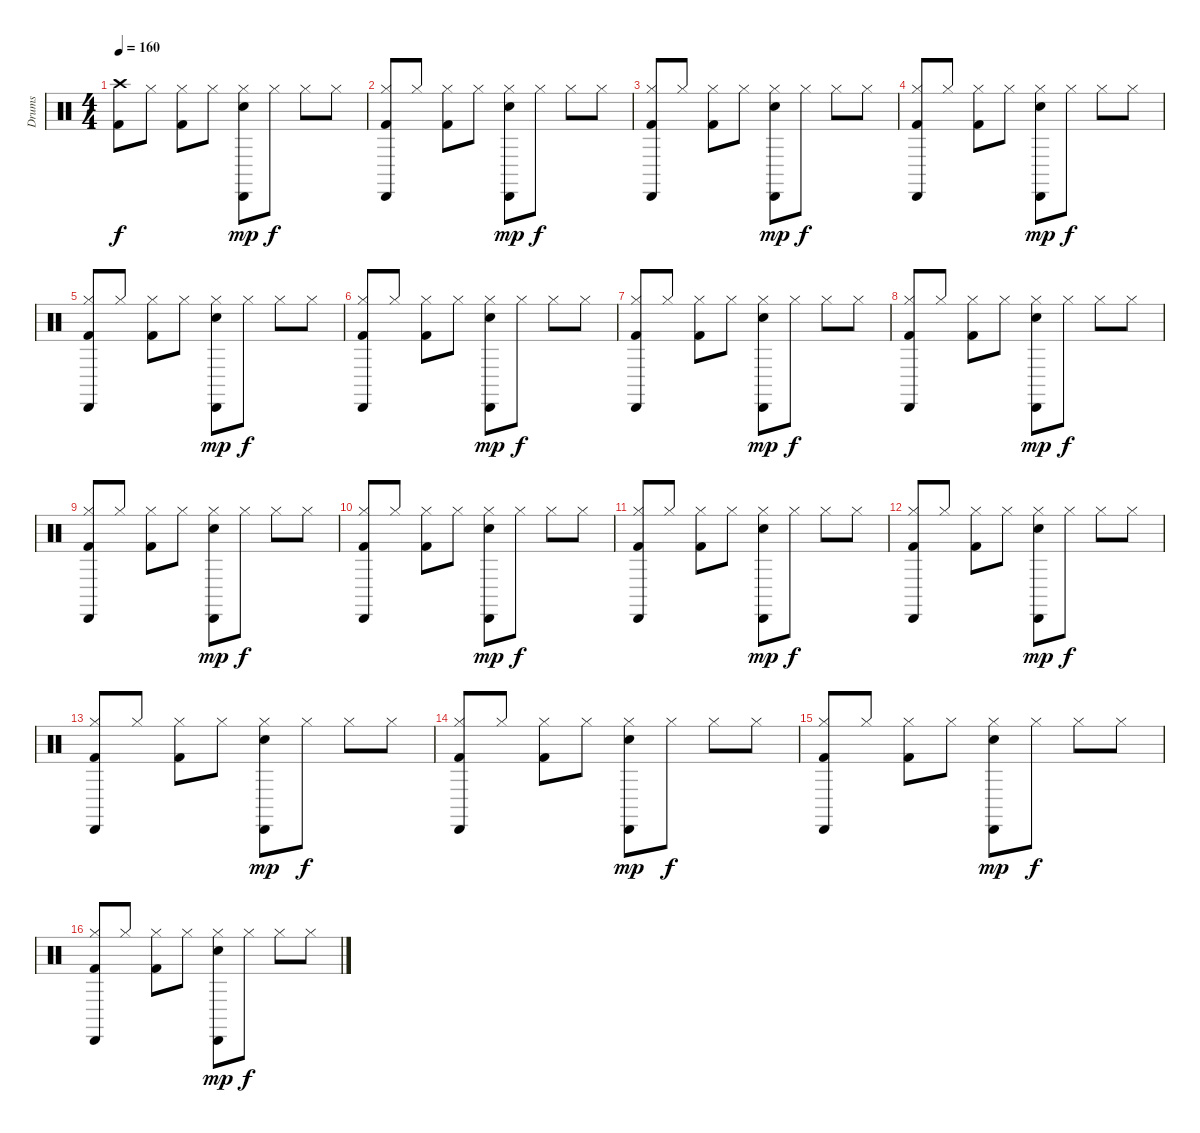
\track ("Drums" "Drums") {instrument percussion}
\staff {score}
\articulation defaults
\ts (4 4)
\tempo 160
\clef neutral
\ks c
("Crash high (hit)" "Kick (hit) 2").8{dy f} "Hi-Hat (closed)".8 ("Hi-Hat (closed)" "Kick (hit) 2").8 "Hi-Hat (closed)".8 ("Hi-Hat (closed)" "Cabasa (hit)" "Electric Snare (hit)").8{dy mp} "Hi-Hat (closed)".8{dy f} "Hi-Hat (closed)".8 "Hi-Hat (closed)".8 |
("Hi-Hat (closed)" "Cabasa (hit)" "Kick (hit) 2").8 "Hi-Hat (closed)".8 ("Hi-Hat (closed)" "Kick (hit) 2").8 "Hi-Hat (closed)".8 ("Hi-Hat (closed)" "Cabasa (hit)" "Electric Snare (hit)").8{dy mp} "Hi-Hat (closed)".8{dy f} "Hi-Hat (closed)".8 "Hi-Hat (closed)".8 |
("Hi-Hat (closed)" "Cabasa (hit)" "Kick (hit) 2").8 "Hi-Hat (closed)".8 ("Hi-Hat (closed)" "Kick (hit) 2").8 "Hi-Hat (closed)".8 ("Hi-Hat (closed)" "Cabasa (hit)" "Electric Snare (hit)").8{dy mp} "Hi-Hat (closed)".8{dy f} "Hi-Hat (closed)".8 "Hi-Hat (closed)".8 |
("Hi-Hat (closed)" "Cabasa (hit)" "Kick (hit) 2").8 "Hi-Hat (closed)".8 ("Hi-Hat (closed)" "Kick (hit) 2").8 "Hi-Hat (closed)".8 ("Hi-Hat (closed)" "Cabasa (hit)" "Electric Snare (hit)").8{dy mp} "Hi-Hat (closed)".8{dy f} "Hi-Hat (closed)".8 "Hi-Hat (closed)".8 |
("Hi-Hat (closed)" "Cabasa (hit)" "Kick (hit) 2").8 "Hi-Hat (closed)".8 ("Hi-Hat (closed)" "Kick (hit) 2").8 "Hi-Hat (closed)".8 ("Hi-Hat (closed)" "Cabasa (hit)" "Electric Snare (hit)").8{dy mp} "Hi-Hat (closed)".8{dy f} "Hi-Hat (closed)".8 "Hi-Hat (closed)".8 |
("Hi-Hat (closed)" "Cabasa (hit)" "Kick (hit) 2").8 "Hi-Hat (closed)".8 ("Hi-Hat (closed)" "Kick (hit) 2").8 "Hi-Hat (closed)".8 ("Hi-Hat (closed)" "Cabasa (hit)" "Electric Snare (hit)").8{dy mp} "Hi-Hat (closed)".8{dy f} "Hi-Hat (closed)".8 "Hi-Hat (closed)".8 |
("Hi-Hat (closed)" "Cabasa (hit)" "Kick (hit) 2").8 "Hi-Hat (closed)".8 ("Hi-Hat (closed)" "Kick (hit) 2").8 "Hi-Hat (closed)".8 ("Hi-Hat (closed)" "Cabasa (hit)" "Electric Snare (hit)").8{dy mp} "Hi-Hat (closed)".8{dy f} "Hi-Hat (closed)".8 "Hi-Hat (closed)".8 |
("Hi-Hat (closed)" "Cabasa (hit)" "Kick (hit) 2").8 "Hi-Hat (closed)".8 ("Hi-Hat (closed)" "Kick (hit) 2").8 "Hi-Hat (closed)".8 ("Hi-Hat (closed)" "Cabasa (hit)" "Electric Snare (hit)").8{dy mp} "Hi-Hat (closed)".8{dy f} "Hi-Hat (closed)".8 "Hi-Hat (closed)".8 |
("Hi-Hat (closed)" "Cabasa (hit)" "Kick (hit) 2").8 "Hi-Hat (closed)".8 ("Hi-Hat (closed)" "Kick (hit) 2").8 "Hi-Hat (closed)".8 ("Hi-Hat (closed)" "Cabasa (hit)" "Electric Snare (hit)").8{dy mp} "Hi-Hat (closed)".8{dy f} "Hi-Hat (closed)".8 "Hi-Hat (closed)".8 |
("Hi-Hat (closed)" "Cabasa (hit)" "Kick (hit) 2").8 "Hi-Hat (closed)".8 ("Hi-Hat (closed)" "Kick (hit) 2").8 "Hi-Hat (closed)".8 ("Hi-Hat (closed)" "Cabasa (hit)" "Electric Snare (hit)").8{dy mp} "Hi-Hat (closed)".8{dy f} "Hi-Hat (closed)".8 "Hi-Hat (closed)".8 |
("Hi-Hat (closed)" "Cabasa (hit)" "Kick (hit) 2").8 "Hi-Hat (closed)".8 ("Hi-Hat (closed)" "Kick (hit) 2").8 "Hi-Hat (closed)".8 ("Hi-Hat (closed)" "Cabasa (hit)" "Electric Snare (hit)").8{dy mp} "Hi-Hat (closed)".8{dy f} "Hi-Hat (closed)".8 "Hi-Hat (closed)".8 |
("Hi-Hat (closed)" "Cabasa (hit)" "Kick (hit) 2").8 "Hi-Hat (closed)".8 ("Hi-Hat (closed)" "Kick (hit) 2").8 "Hi-Hat (closed)".8 ("Hi-Hat (closed)" "Cabasa (hit)" "Electric Snare (hit)").8{dy mp} "Hi-Hat (closed)".8{dy f} "Hi-Hat (closed)".8 "Hi-Hat (closed)".8 |
("Hi-Hat (closed)" "Cabasa (hit)" "Kick (hit) 2").8 "Hi-Hat (closed)".8 ("Hi-Hat (closed)" "Kick (hit) 2").8 "Hi-Hat (closed)".8 ("Hi-Hat (closed)" "Cabasa (hit)" "Electric Snare (hit)").8{dy mp} "Hi-Hat (closed)".8{dy f} "Hi-Hat (closed)".8 "Hi-Hat (closed)".8 |
("Hi-Hat (closed)" "Cabasa (hit)" "Kick (hit) 2").8 "Hi-Hat (closed)".8 ("Hi-Hat (closed)" "Kick (hit) 2").8 "Hi-Hat (closed)".8 ("Hi-Hat (closed)" "Cabasa (hit)" "Electric Snare (hit)").8{dy mp} "Hi-Hat (closed)".8{dy f} "Hi-Hat (closed)".8 "Hi-Hat (closed)".8 |
("Hi-Hat (closed)" "Cabasa (hit)" "Kick (hit) 2").8 "Hi-Hat (closed)".8 ("Hi-Hat (closed)" "Kick (hit) 2").8 "Hi-Hat (closed)".8 ("Hi-Hat (closed)" "Cabasa (hit)" "Electric Snare (hit)").8{dy mp} "Hi-Hat (closed)".8{dy f} "Hi-Hat (closed)".8 "Hi-Hat (closed)".8 |
("Hi-Hat (closed)" "Cabasa (hit)" "Kick (hit) 2").8 "Hi-Hat (closed)".8 ("Hi-Hat (closed)" "Kick (hit) 2").8 "Hi-Hat (closed)".8 ("Hi-Hat (closed)" "Cabasa (hit)" "Electric Snare (hit)").8{dy mp} "Hi-Hat (closed)".8{dy f} "Hi-Hat (closed)".8 "Hi-Hat (closed)".8
